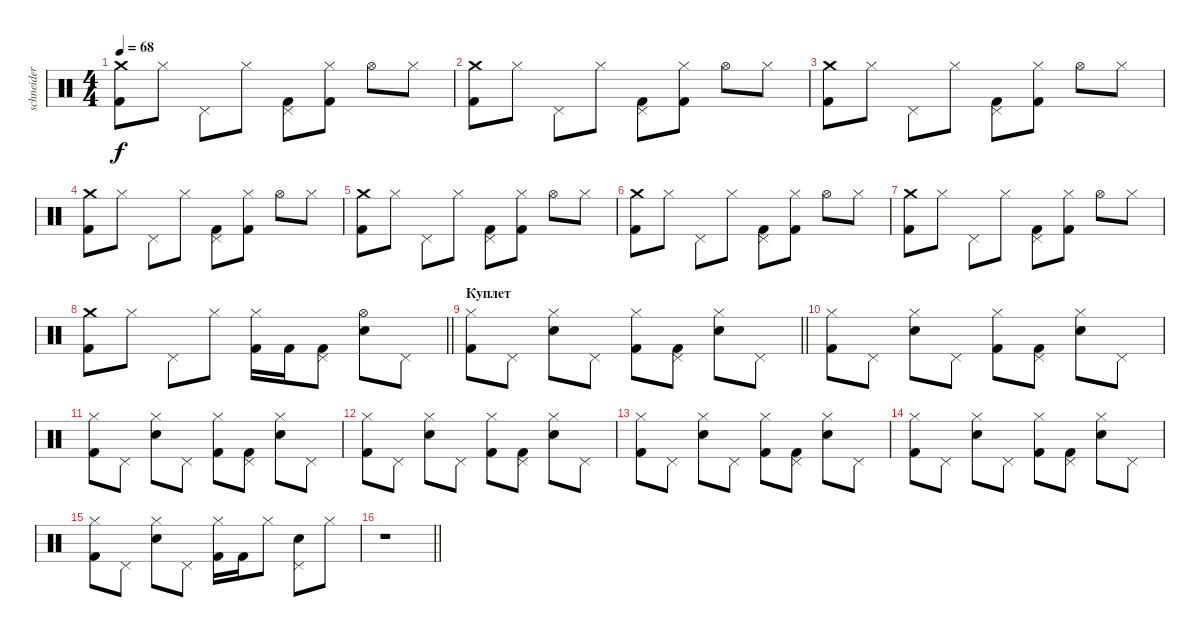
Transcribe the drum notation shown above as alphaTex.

\track ("schneider" "schneider") {instrument percussion}
\staff {score}
\articulation defaults
\ts (4 4)
\tempo 68
\clef neutral
\ks c
("Crash medium (hit)" "Kick (hit) 2").8{dy f} "Hi-Hat (closed)".8 "Pedal Hi-Hat (hit)".8 "Hi-Hat (closed)".8 ("Pedal Hi-Hat (hit)" "Kick (hit) 2").8 ("Hi-Hat (closed)" "Kick (hit) 2").8 "Hi-Hat (open)".8 "Hi-Hat (closed)".8 |
("Crash medium (hit)" "Kick (hit) 2").8 "Hi-Hat (closed)".8 "Pedal Hi-Hat (hit)".8 "Hi-Hat (closed)".8 ("Pedal Hi-Hat (hit)" "Kick (hit) 2").8 ("Hi-Hat (closed)" "Kick (hit) 2").8 "Hi-Hat (open)".8 "Hi-Hat (closed)".8 |
("Crash medium (hit)" "Kick (hit) 2").8 "Hi-Hat (closed)".8 "Pedal Hi-Hat (hit)".8 "Hi-Hat (closed)".8 ("Pedal Hi-Hat (hit)" "Kick (hit) 2").8 ("Hi-Hat (closed)" "Kick (hit) 2").8 "Hi-Hat (open)".8 "Hi-Hat (closed)".8 |
("Crash medium (hit)" "Kick (hit) 2").8 "Hi-Hat (closed)".8 "Pedal Hi-Hat (hit)".8 "Hi-Hat (closed)".8 ("Pedal Hi-Hat (hit)" "Kick (hit) 2").8 ("Hi-Hat (closed)" "Kick (hit) 2").8 "Hi-Hat (open)".8 "Hi-Hat (closed)".8 |
("Crash medium (hit)" "Kick (hit) 2").8 "Hi-Hat (closed)".8 "Pedal Hi-Hat (hit)".8 "Hi-Hat (closed)".8 ("Pedal Hi-Hat (hit)" "Kick (hit) 2").8 ("Hi-Hat (closed)" "Kick (hit) 2").8 "Hi-Hat (open)".8 "Hi-Hat (closed)".8 |
("Crash medium (hit)" "Kick (hit) 2").8 "Hi-Hat (closed)".8 "Pedal Hi-Hat (hit)".8 "Hi-Hat (closed)".8 ("Pedal Hi-Hat (hit)" "Kick (hit) 2").8 ("Hi-Hat (closed)" "Kick (hit) 2").8 "Hi-Hat (open)".8 "Hi-Hat (closed)".8 |
("Crash medium (hit)" "Kick (hit) 2").8 "Hi-Hat (closed)".8 "Pedal Hi-Hat (hit)".8 "Hi-Hat (closed)".8 ("Pedal Hi-Hat (hit)" "Kick (hit) 2").8 ("Hi-Hat (closed)" "Kick (hit) 2").8 "Hi-Hat (open)".8 "Hi-Hat (closed)".8 |
\barLineRight lightlight
("Crash medium (hit)" "Kick (hit) 2").8 "Hi-Hat (closed)".8 "Pedal Hi-Hat (hit)".8 "Hi-Hat (closed)".8 ("Hi-Hat (closed)" "Kick (hit) 2").16 "Kick (hit) 2".16 ("Pedal Hi-Hat (hit)" "Kick (hit) 2").8 ("Hi-Hat (open)" "Electric Snare (hit)").8 "Pedal Hi-Hat (hit)".8 |
\section ("" "Куплет ")
\barLineRight lightlight
("Hi-Hat (closed)" "Kick (hit) 2").8 "Pedal Hi-Hat (hit)".8 ("Hi-Hat (closed)" "Electric Snare (hit)").8 "Pedal Hi-Hat (hit)".8 ("Hi-Hat (closed)" "Kick (hit) 2").8 ("Pedal Hi-Hat (hit)" "Kick (hit) 2").8 ("Hi-Hat (closed)" "Electric Snare (hit)").8 "Pedal Hi-Hat (hit)".8 |
("Hi-Hat (closed)" "Kick (hit) 2").8 "Pedal Hi-Hat (hit)".8 ("Hi-Hat (closed)" "Electric Snare (hit)").8 "Pedal Hi-Hat (hit)".8 ("Hi-Hat (closed)" "Kick (hit) 2").8 ("Pedal Hi-Hat (hit)" "Kick (hit) 2").8 ("Hi-Hat (closed)" "Electric Snare (hit)").8 "Pedal Hi-Hat (hit)".8 |
("Hi-Hat (closed)" "Kick (hit) 2").8 "Pedal Hi-Hat (hit)".8 ("Hi-Hat (closed)" "Electric Snare (hit)").8 "Pedal Hi-Hat (hit)".8 ("Hi-Hat (closed)" "Kick (hit) 2").8 ("Pedal Hi-Hat (hit)" "Kick (hit) 2").8 ("Hi-Hat (closed)" "Electric Snare (hit)").8 "Pedal Hi-Hat (hit)".8 |
("Hi-Hat (closed)" "Kick (hit) 2").8 "Pedal Hi-Hat (hit)".8 ("Hi-Hat (closed)" "Electric Snare (hit)").8 "Pedal Hi-Hat (hit)".8 ("Hi-Hat (closed)" "Kick (hit) 2").8 ("Pedal Hi-Hat (hit)" "Kick (hit) 2").8 ("Hi-Hat (closed)" "Electric Snare (hit)").8 "Pedal Hi-Hat (hit)".8 |
("Hi-Hat (closed)" "Kick (hit) 2").8 "Pedal Hi-Hat (hit)".8 ("Hi-Hat (closed)" "Electric Snare (hit)").8 "Pedal Hi-Hat (hit)".8 ("Hi-Hat (closed)" "Kick (hit) 2").8 ("Pedal Hi-Hat (hit)" "Kick (hit) 2").8 ("Hi-Hat (closed)" "Electric Snare (hit)").8 "Pedal Hi-Hat (hit)".8 |
("Hi-Hat (closed)" "Kick (hit) 2").8 "Pedal Hi-Hat (hit)".8 ("Hi-Hat (closed)" "Electric Snare (hit)").8 "Pedal Hi-Hat (hit)".8 ("Hi-Hat (closed)" "Kick (hit) 2").8 ("Pedal Hi-Hat (hit)" "Kick (hit) 2").8 ("Hi-Hat (closed)" "Electric Snare (hit)").8 "Pedal Hi-Hat (hit)".8 |
("Hi-Hat (closed)" "Kick (hit) 2").8 "Pedal Hi-Hat (hit)".8 ("Hi-Hat (closed)" "Electric Snare (hit)").8 "Pedal Hi-Hat (hit)".8 ("Hi-Hat (closed)" "Kick (hit) 2").16 "Kick (hit) 2".16 "Hi-Hat (closed)".8 ("Pedal Hi-Hat (hit)" "Electric Snare (hit)").8 "Hi-Hat (closed)".8 |
\barLineRight lightlight
r.1
